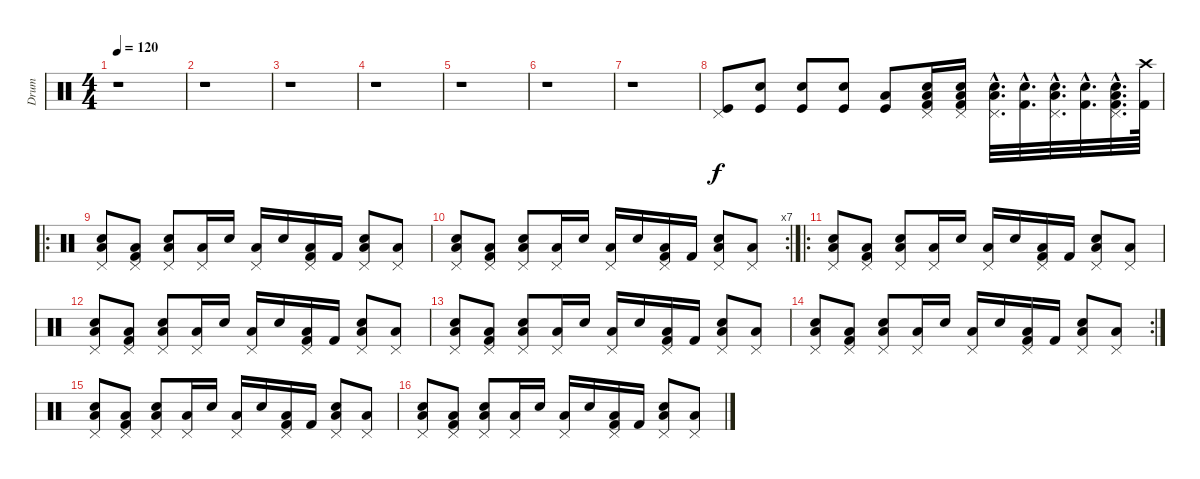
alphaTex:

\track ("Drum" "Drum") {instrument percussion}
\staff {score}
\articulation defaults
\ts (4 4)
\tempo 120
\clef neutral
\ks c
r.1{dy f} |
r.1 |
r.1 |
r.1 |
r.1 |
r.1 |
r.1 |
("Kick (hit)" "Pedal Hi-Hat (hit)").8 ("Electric Snare (hit)" "Kick (hit)").8 ("Electric Snare (hit)" "Kick (hit)").8 ("Electric Snare (hit)" "Kick (hit)").8 ("Kick (hit)" "Low Floor Tom (hit)").8 ("Pedal Hi-Hat (hit)" "Low Floor Tom (hit)" "Electric Snare (hit)" "Kick (hit) 2").16 ("Pedal Hi-Hat (hit)" "Low Floor Tom (hit)" "Electric Snare (hit)" "Kick (hit) 2").16 ("Pedal Hi-Hat (hit)"{hac} "Low Floor Tom (hit)"{hac} "Electric Snare (hit)"{hac}).32{d} ("Electric Snare (hit)"{hac} "Kick (hit) 2"{hac}).32{d} ("Pedal Hi-Hat (hit)"{hac} "Low Floor Tom (hit)"{hac} "Electric Snare (hit)"{hac}).32{d} ("Electric Snare (hit)"{hac} "Kick (hit) 2"{hac}).32{d} ("Pedal Hi-Hat (hit)"{hac} "Low Floor Tom (hit)"{hac} "Electric Snare (hit)"{hac} "Kick (hit) 2"{hac}).32{d} ("Crash high (hit)" "Kick (hit) 2").64 |
\ro
("Pedal Hi-Hat (hit)" "Low Floor Tom (hit)" "Electric Snare (hit)").8 ("Pedal Hi-Hat (hit)" "Low Floor Tom (hit)" "Kick (hit) 2").8 ("Pedal Hi-Hat (hit)" "Low Floor Tom (hit)" "Electric Snare (hit)").8 ("Pedal Hi-Hat (hit)" "Low Floor Tom (hit)").16 "Electric Snare (hit)".16 ("Pedal Hi-Hat (hit)" "Low Floor Tom (hit)").16 "Electric Snare (hit)".16 ("Pedal Hi-Hat (hit)" "Low Floor Tom (hit)" "Kick (hit) 2").16 "Kick (hit) 2".16 ("Pedal Hi-Hat (hit)" "Low Floor Tom (hit)" "Electric Snare (hit)").8 ("Pedal Hi-Hat (hit)" "Low Floor Tom (hit)").8 |
\rc 7
("Pedal Hi-Hat (hit)" "Low Floor Tom (hit)" "Electric Snare (hit)").8 ("Pedal Hi-Hat (hit)" "Low Floor Tom (hit)" "Kick (hit) 2").8 ("Pedal Hi-Hat (hit)" "Low Floor Tom (hit)" "Electric Snare (hit)").8 ("Pedal Hi-Hat (hit)" "Low Floor Tom (hit)").16 "Electric Snare (hit)".16 ("Pedal Hi-Hat (hit)" "Low Floor Tom (hit)").16 "Electric Snare (hit)".16 ("Pedal Hi-Hat (hit)" "Low Floor Tom (hit)" "Kick (hit) 2").16 "Kick (hit) 2".16 ("Pedal Hi-Hat (hit)" "Low Floor Tom (hit)" "Electric Snare (hit)").8 ("Pedal Hi-Hat (hit)" "Low Floor Tom (hit)").8 |
\ro
("Pedal Hi-Hat (hit)" "Low Floor Tom (hit)" "Electric Snare (hit)").8 ("Pedal Hi-Hat (hit)" "Low Floor Tom (hit)" "Kick (hit) 2").8 ("Pedal Hi-Hat (hit)" "Low Floor Tom (hit)" "Electric Snare (hit)").8 ("Pedal Hi-Hat (hit)" "Low Floor Tom (hit)").16 "Electric Snare (hit)".16 ("Pedal Hi-Hat (hit)" "Low Floor Tom (hit)").16 "Electric Snare (hit)".16 ("Pedal Hi-Hat (hit)" "Low Floor Tom (hit)" "Kick (hit) 2").16 "Kick (hit) 2".16 ("Pedal Hi-Hat (hit)" "Low Floor Tom (hit)" "Electric Snare (hit)").8 ("Pedal Hi-Hat (hit)" "Low Floor Tom (hit)").8 |
("Pedal Hi-Hat (hit)" "Low Floor Tom (hit)" "Electric Snare (hit)").8 ("Pedal Hi-Hat (hit)" "Low Floor Tom (hit)" "Kick (hit) 2").8 ("Pedal Hi-Hat (hit)" "Low Floor Tom (hit)" "Electric Snare (hit)").8 ("Pedal Hi-Hat (hit)" "Low Floor Tom (hit)").16 "Electric Snare (hit)".16 ("Pedal Hi-Hat (hit)" "Low Floor Tom (hit)").16 "Electric Snare (hit)".16 ("Pedal Hi-Hat (hit)" "Low Floor Tom (hit)" "Kick (hit) 2").16 "Kick (hit) 2".16 ("Pedal Hi-Hat (hit)" "Low Floor Tom (hit)" "Electric Snare (hit)").8 ("Pedal Hi-Hat (hit)" "Low Floor Tom (hit)").8 |
("Pedal Hi-Hat (hit)" "Low Floor Tom (hit)" "Electric Snare (hit)").8 ("Pedal Hi-Hat (hit)" "Low Floor Tom (hit)" "Kick (hit) 2").8 ("Pedal Hi-Hat (hit)" "Low Floor Tom (hit)" "Electric Snare (hit)").8 ("Pedal Hi-Hat (hit)" "Low Floor Tom (hit)").16 "Electric Snare (hit)".16 ("Pedal Hi-Hat (hit)" "Low Floor Tom (hit)").16 "Electric Snare (hit)".16 ("Pedal Hi-Hat (hit)" "Low Floor Tom (hit)" "Kick (hit) 2").16 "Kick (hit) 2".16 ("Pedal Hi-Hat (hit)" "Low Floor Tom (hit)" "Electric Snare (hit)").8 ("Pedal Hi-Hat (hit)" "Low Floor Tom (hit)").8 |
\rc 2
("Pedal Hi-Hat (hit)" "Low Floor Tom (hit)" "Electric Snare (hit)").8 ("Pedal Hi-Hat (hit)" "Low Floor Tom (hit)" "Kick (hit) 2").8 ("Pedal Hi-Hat (hit)" "Low Floor Tom (hit)" "Electric Snare (hit)").8 ("Pedal Hi-Hat (hit)" "Low Floor Tom (hit)").16 "Electric Snare (hit)".16 ("Pedal Hi-Hat (hit)" "Low Floor Tom (hit)").16 "Electric Snare (hit)".16 ("Pedal Hi-Hat (hit)" "Low Floor Tom (hit)" "Kick (hit) 2").16 "Kick (hit) 2".16 ("Pedal Hi-Hat (hit)" "Low Floor Tom (hit)" "Electric Snare (hit)").8 ("Pedal Hi-Hat (hit)" "Low Floor Tom (hit)").8 |
("Pedal Hi-Hat (hit)" "Low Floor Tom (hit)" "Electric Snare (hit)").8 ("Pedal Hi-Hat (hit)" "Low Floor Tom (hit)" "Kick (hit) 2").8 ("Pedal Hi-Hat (hit)" "Low Floor Tom (hit)" "Electric Snare (hit)").8 ("Pedal Hi-Hat (hit)" "Low Floor Tom (hit)").16 "Electric Snare (hit)".16 ("Pedal Hi-Hat (hit)" "Low Floor Tom (hit)").16 "Electric Snare (hit)".16 ("Pedal Hi-Hat (hit)" "Low Floor Tom (hit)" "Kick (hit) 2").16 "Kick (hit) 2".16 ("Pedal Hi-Hat (hit)" "Low Floor Tom (hit)" "Electric Snare (hit)").8 ("Pedal Hi-Hat (hit)" "Low Floor Tom (hit)").8 |
("Pedal Hi-Hat (hit)" "Low Floor Tom (hit)" "Electric Snare (hit)").8 ("Pedal Hi-Hat (hit)" "Low Floor Tom (hit)" "Kick (hit) 2").8 ("Pedal Hi-Hat (hit)" "Low Floor Tom (hit)" "Electric Snare (hit)").8 ("Pedal Hi-Hat (hit)" "Low Floor Tom (hit)").16 "Electric Snare (hit)".16 ("Pedal Hi-Hat (hit)" "Low Floor Tom (hit)").16 "Electric Snare (hit)".16 ("Pedal Hi-Hat (hit)" "Low Floor Tom (hit)" "Kick (hit) 2").16 "Kick (hit) 2".16 ("Pedal Hi-Hat (hit)" "Low Floor Tom (hit)" "Electric Snare (hit)").8 ("Pedal Hi-Hat (hit)" "Low Floor Tom (hit)").8
